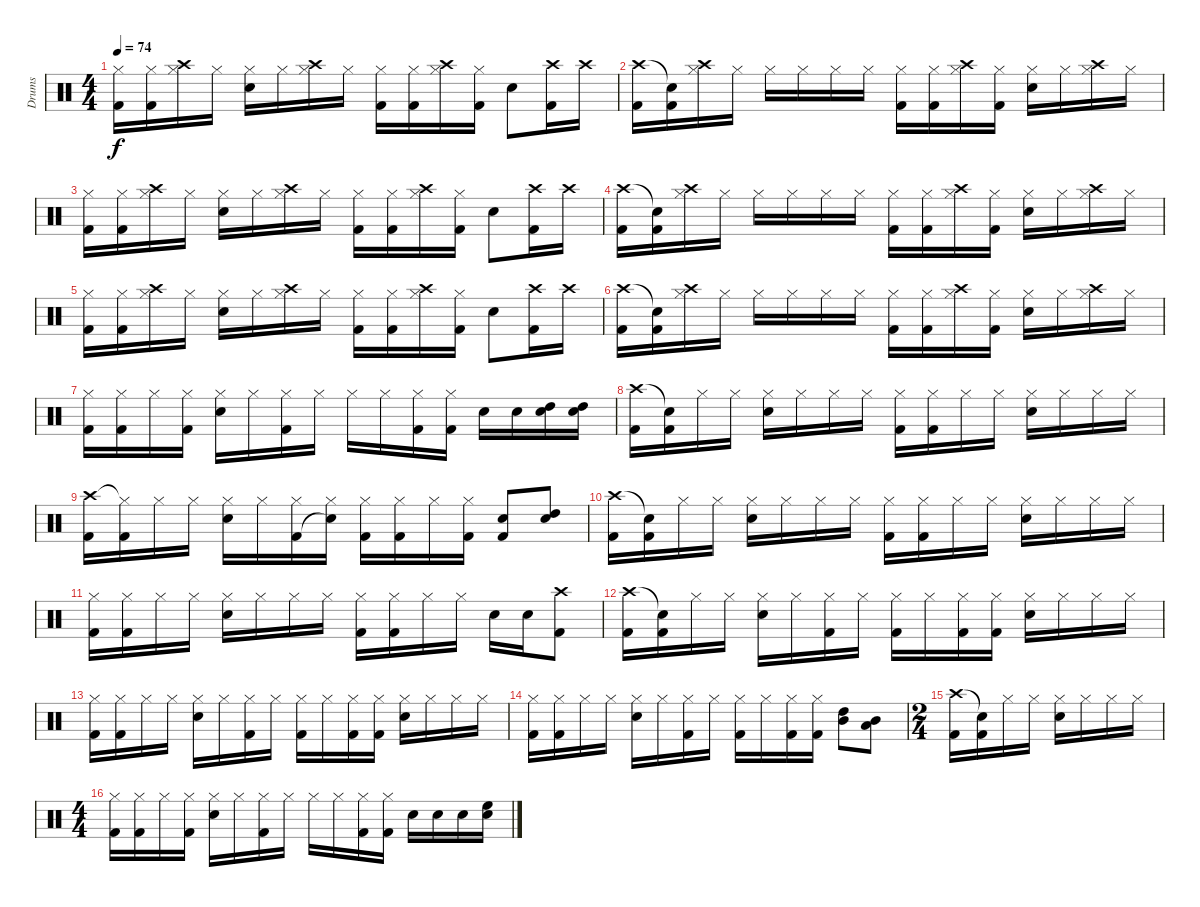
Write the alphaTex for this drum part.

\track ("Drums" "Drums") {instrument percussion}
\staff {score}
\articulation defaults
\ts (4 4)
\tempo 74
\clef neutral
\ks c
("Hi-Hat (closed)" "Kick (hit) 2").16{dy f} ("Hi-Hat (closed)" "Kick (hit) 2").16 ("Hi-Hat (closed)" "Crash high (hit)").16 "Hi-Hat (closed)".16 ("Hi-Hat (closed)" "Electric Snare (hit)").16 "Hi-Hat (closed)".16 ("Hi-Hat (closed)" "Crash high (hit)").16 "Hi-Hat (closed)".16 ("Hi-Hat (closed)" "Kick (hit) 2").16 ("Hi-Hat (closed)" "Kick (hit) 2").16 ("Hi-Hat (closed)" "Crash high (hit)").16 ("Hi-Hat (closed)" "Kick (hit) 2").16 "Electric Snare (hit)".8 ("Kick (hit) 2" "Crash high (hit)").16 "Crash high (hit)".16 |
("Crash high (hit)" "Kick (hit) 2").16 ("Snare (hit)"{t} "Kick (hit) 2").16 ("Hi-Hat (closed)" "Crash high (hit)").16 "Hi-Hat (closed)".16 "Hi-Hat (closed)".16 "Hi-Hat (closed)".16 "Hi-Hat (closed)".16 "Hi-Hat (closed)".16 ("Hi-Hat (closed)" "Kick (hit) 2").16 ("Hi-Hat (closed)" "Kick (hit) 2").16 ("Hi-Hat (closed)" "Crash high (hit)").16 ("Hi-Hat (closed)" "Kick (hit) 2").16 ("Hi-Hat (closed)" "Electric Snare (hit)").16 "Hi-Hat (closed)".16 ("Hi-Hat (closed)" "Crash high (hit)").16 "Hi-Hat (closed)".16 |
("Hi-Hat (closed)" "Kick (hit) 2").16 ("Hi-Hat (closed)" "Kick (hit) 2").16 ("Hi-Hat (closed)" "Crash high (hit)").16 "Hi-Hat (closed)".16 ("Hi-Hat (closed)" "Electric Snare (hit)").16 "Hi-Hat (closed)".16 ("Hi-Hat (closed)" "Crash high (hit)").16 "Hi-Hat (closed)".16 ("Hi-Hat (closed)" "Kick (hit) 2").16 ("Hi-Hat (closed)" "Kick (hit) 2").16 ("Hi-Hat (closed)" "Crash high (hit)").16 ("Hi-Hat (closed)" "Kick (hit) 2").16 "Electric Snare (hit)".8 ("Kick (hit) 2" "Crash high (hit)").16 "Crash high (hit)".16 |
("Crash high (hit)" "Kick (hit) 2").16 ("Snare (hit)"{t} "Kick (hit) 2").16 ("Hi-Hat (closed)" "Crash high (hit)").16 "Hi-Hat (closed)".16 "Hi-Hat (closed)".16 "Hi-Hat (closed)".16 "Hi-Hat (closed)".16 "Hi-Hat (closed)".16 ("Hi-Hat (closed)" "Kick (hit) 2").16 ("Hi-Hat (closed)" "Kick (hit) 2").16 ("Hi-Hat (closed)" "Crash high (hit)").16 ("Hi-Hat (closed)" "Kick (hit) 2").16 ("Hi-Hat (closed)" "Electric Snare (hit)").16 "Hi-Hat (closed)".16 ("Hi-Hat (closed)" "Crash high (hit)").16 "Hi-Hat (closed)".16 |
("Hi-Hat (closed)" "Kick (hit) 2").16 ("Hi-Hat (closed)" "Kick (hit) 2").16 ("Hi-Hat (closed)" "Crash high (hit)").16 "Hi-Hat (closed)".16 ("Hi-Hat (closed)" "Electric Snare (hit)").16 "Hi-Hat (closed)".16 ("Hi-Hat (closed)" "Crash high (hit)").16 "Hi-Hat (closed)".16 ("Hi-Hat (closed)" "Kick (hit) 2").16 ("Hi-Hat (closed)" "Kick (hit) 2").16 ("Hi-Hat (closed)" "Crash high (hit)").16 ("Hi-Hat (closed)" "Kick (hit) 2").16 "Electric Snare (hit)".8 ("Kick (hit) 2" "Crash high (hit)").16 "Crash high (hit)".16 |
("Crash high (hit)" "Kick (hit) 2").16 ("Snare (hit)"{t} "Kick (hit) 2").16 ("Hi-Hat (closed)" "Crash high (hit)").16 "Hi-Hat (closed)".16 "Hi-Hat (closed)".16 "Hi-Hat (closed)".16 "Hi-Hat (closed)".16 "Hi-Hat (closed)".16 ("Hi-Hat (closed)" "Kick (hit) 2").16 ("Hi-Hat (closed)" "Kick (hit) 2").16 ("Hi-Hat (closed)" "Crash high (hit)").16 ("Hi-Hat (closed)" "Kick (hit) 2").16 ("Hi-Hat (closed)" "Electric Snare (hit)").16 "Hi-Hat (closed)".16 ("Hi-Hat (closed)" "Crash high (hit)").16 "Hi-Hat (closed)".16 |
("Hi-Hat (closed)" "Kick (hit) 2").16 ("Hi-Hat (closed)" "Kick (hit) 2").16 "Hi-Hat (closed)".16 ("Hi-Hat (closed)" "Kick (hit) 2").16 ("Hi-Hat (closed)" "Electric Snare (hit)").16 "Hi-Hat (closed)".16 ("Hi-Hat (closed)" "Kick (hit) 2").16 "Hi-Hat (closed)".16 "Hi-Hat (closed)".16 "Hi-Hat (closed)".16 ("Hi-Hat (closed)" "Kick (hit) 2").16 ("Hi-Hat (closed)" "Kick (hit) 2").16 "Electric Snare (hit)".16 "Electric Snare (hit)".16 ("High Tom (hit)" "Electric Snare (hit)").16 ("High Tom (hit)" "Electric Snare (hit)").16 |
("Crash high (hit)" "Kick (hit) 2").16 ("Snare (hit)"{t} "Kick (hit) 2").16 "Hi-Hat (closed)".16 "Hi-Hat (closed)".16 ("Hi-Hat (closed)" "Electric Snare (hit)").16 "Hi-Hat (closed)".16 "Hi-Hat (closed)".16 "Hi-Hat (closed)".16 ("Hi-Hat (closed)" "Kick (hit) 2").16 ("Hi-Hat (closed)" "Kick (hit) 2").16 "Hi-Hat (closed)".16 "Hi-Hat (closed)".16 ("Hi-Hat (closed)" "Electric Snare (hit)").16 "Hi-Hat (closed)".16 "Hi-Hat (closed)".16 "Hi-Hat (closed)".16 |
("Crash high (hit)" "Kick (hit) 2").16 ("Hi-Hat (closed)"{t} "Kick (hit) 2").16 "Hi-Hat (closed)".16 "Hi-Hat (closed)".16 ("Hi-Hat (closed)" "Electric Snare (hit)").16 "Hi-Hat (closed)".16 ("Hi-Hat (closed)" "Kick (hit) 2").16 ("Hi-Hat (closed)" "Snare (hit)"{t}).16 ("Hi-Hat (closed)" "Kick (hit) 2").16 ("Hi-Hat (closed)" "Kick (hit) 2").16 "Hi-Hat (closed)".16 ("Hi-Hat (closed)" "Kick (hit) 2").16 ("Electric Snare (hit)" "Kick (hit) 2").8 ("High Tom (hit)" "Electric Snare (hit)").8 |
("Crash high (hit)" "Kick (hit) 2").16 ("Snare (hit)"{t} "Kick (hit) 2").16 "Hi-Hat (closed)".16 "Hi-Hat (closed)".16 ("Hi-Hat (closed)" "Electric Snare (hit)").16 "Hi-Hat (closed)".16 "Hi-Hat (closed)".16 "Hi-Hat (closed)".16 ("Hi-Hat (closed)" "Kick (hit) 2").16 ("Hi-Hat (closed)" "Kick (hit) 2").16 "Hi-Hat (closed)".16 "Hi-Hat (closed)".16 ("Hi-Hat (closed)" "Electric Snare (hit)").16 "Hi-Hat (closed)".16 "Hi-Hat (closed)".16 "Hi-Hat (closed)".16 |
("Hi-Hat (closed)" "Kick (hit) 2").16 ("Hi-Hat (closed)" "Kick (hit) 2").16 "Hi-Hat (closed)".16 "Hi-Hat (closed)".16 ("Hi-Hat (closed)" "Electric Snare (hit)").16 "Hi-Hat (closed)".16 "Hi-Hat (closed)".16 "Hi-Hat (closed)".16 ("Hi-Hat (closed)" "Kick (hit) 2").16 ("Hi-Hat (closed)" "Kick (hit) 2").16 "Hi-Hat (closed)".16 "Hi-Hat (closed)".16 "Electric Snare (hit)".16 "Electric Snare (hit)".16 ("Crash high (hit)" "Kick (hit) 2").8 |
("Crash high (hit)" "Kick (hit) 2").16 ("Snare (hit)"{t} "Kick (hit) 2").16 "Hi-Hat (closed)".16 "Hi-Hat (closed)".16 ("Hi-Hat (closed)" "Electric Snare (hit)").16 "Hi-Hat (closed)".16 ("Hi-Hat (closed)" "Kick (hit) 2").16 "Hi-Hat (closed)".16 ("Hi-Hat (closed)" "Kick (hit) 2").16 "Hi-Hat (closed)".16 ("Hi-Hat (closed)" "Kick (hit) 2").16 ("Hi-Hat (closed)" "Kick (hit) 2").16 ("Hi-Hat (closed)" "Electric Snare (hit)").16 "Hi-Hat (closed)".16 "Hi-Hat (closed)".16 "Hi-Hat (closed)".16 |
("Hi-Hat (closed)" "Kick (hit) 2").16 ("Hi-Hat (closed)" "Kick (hit) 2").16 "Hi-Hat (closed)".16 "Hi-Hat (closed)".16 ("Hi-Hat (closed)" "Electric Snare (hit)").16 "Hi-Hat (closed)".16 ("Hi-Hat (closed)" "Kick (hit) 2").16 "Hi-Hat (closed)".16 ("Hi-Hat (closed)" "Kick (hit) 2").16 "Hi-Hat (closed)".16 ("Hi-Hat (closed)" "Kick (hit) 2").16 ("Hi-Hat (closed)" "Kick (hit) 2").16 ("Hi-Hat (closed)" "Electric Snare (hit)").16 "Hi-Hat (closed)".16 "Hi-Hat (closed)".16 "Hi-Hat (closed)".16 |
("Hi-Hat (closed)" "Kick (hit) 2").16 ("Hi-Hat (closed)" "Kick (hit) 2").16 "Hi-Hat (closed)".16 "Hi-Hat (closed)".16 ("Hi-Hat (closed)" "Electric Snare (hit)").16 "Hi-Hat (closed)".16 ("Hi-Hat (closed)" "Kick (hit) 2").16 "Hi-Hat (closed)".16 ("Hi-Hat (closed)" "Kick (hit) 2").16 "Hi-Hat (closed)".16 ("Hi-Hat (closed)" "Kick (hit) 2").16 ("Hi-Hat (closed)" "Kick (hit) 2").16 ("Mid Tom (hit)" "High Tom (hit)").8 ("Mid Tom (hit)" "Low Tom (hit)").8 |
\ts (2 4)
("Crash high (hit)" "Kick (hit) 2").16 ("Snare (hit)"{t} "Kick (hit) 2").16 "Hi-Hat (closed)".16 "Hi-Hat (closed)".16 ("Hi-Hat (closed)" "Electric Snare (hit)").16 "Hi-Hat (closed)".16 "Hi-Hat (closed)".16 "Hi-Hat (closed)".16 |
\ts (4 4)
("Hi-Hat (closed)" "Kick (hit) 2").16 ("Hi-Hat (closed)" "Kick (hit) 2").16 "Hi-Hat (closed)".16 ("Hi-Hat (closed)" "Kick (hit) 2").16 ("Hi-Hat (closed)" "Electric Snare (hit)").16 "Hi-Hat (closed)".16 ("Hi-Hat (closed)" "Kick (hit) 2").16 "Hi-Hat (closed)".16 "Hi-Hat (closed)".16 "Hi-Hat (closed)".16 ("Hi-Hat (closed)" "Kick (hit) 2").16 ("Hi-Hat (closed)" "Kick (hit) 2").16 "Electric Snare (hit)".16 "Electric Snare (hit)".16 "Electric Snare (hit)".16 ("High Floor Tom (hit)" "Electric Snare (hit)").16
